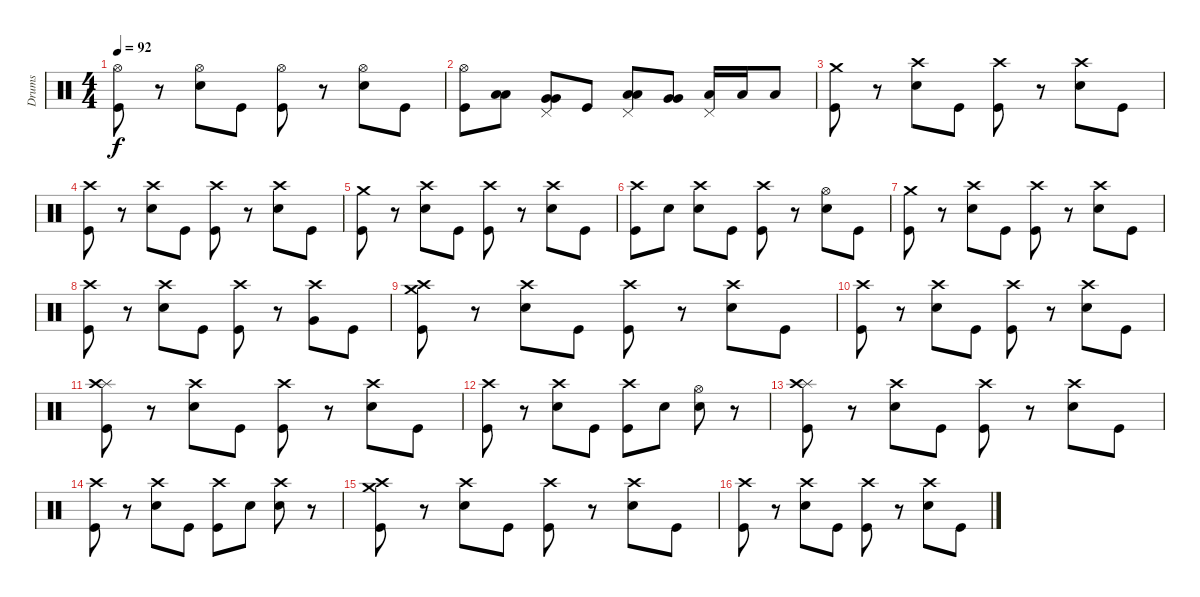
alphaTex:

\track ("Drums" "Drums") {instrument percussion}
\staff {score}
\articulation defaults
\ts (4 4)
\tempo 92
\clef neutral
\ks c
("Hi-Hat (open)" "Kick (hit)").8{dy f} r.8 ("Hi-Hat (open)" "Snare (hit) 2").8 "Kick (hit)".8 ("Hi-Hat (open)" "Kick (hit)").8 r.8 ("Hi-Hat (open)" "Snare (hit) 2").8 "Kick (hit)".8 |
("Hi-Hat (open)" "Kick (hit)").8 ("Low Tom (hit)" "Low Tom (hit)").8 ("Pedal Hi-Hat (hit)" "Very Low Tom (hit)" "Very Low Tom (hit)").8 "Kick (hit)".8 ("Pedal Hi-Hat (hit)" "Low Tom (hit)" "Low Tom (hit)").8 ("Very Low Tom (hit)" "Very Low Tom (hit)").8 ("Pedal Hi-Hat (hit)" "Low Floor Tom (hit)").16 "Low Floor Tom (hit)".16 "Low Floor Tom (hit)".8 |
("Crash medium (hit)" "Kick (hit)").8 r.8 ("Crash high (hit)" "Snare (hit) 2").8 "Kick (hit)".8 ("Crash high (hit)" "Kick (hit)").8 r.8 ("Crash high (hit)" "Snare (hit) 2").8 "Kick (hit)".8 |
("Crash high (hit)" "Kick (hit)").8 r.8 ("Crash high (hit)" "Snare (hit) 2").8 "Kick (hit)".8 ("Crash high (hit)" "Kick (hit)").8 r.8 ("Crash high (hit)" "Snare (hit) 2").8 "Kick (hit)".8 |
("Crash medium (hit)" "Kick (hit)").8 r.8 ("Crash high (hit)" "Snare (hit) 2").8 "Kick (hit)".8 ("Crash high (hit)" "Kick (hit)").8 r.8 ("Crash high (hit)" "Snare (hit) 2").8 "Kick (hit)".8 |
("Crash high (hit)" "Kick (hit)").8 "Snare (hit) 2".8 ("Crash high (hit)" "Snare (hit) 2").8 "Kick (hit)".8 ("Crash high (hit)" "Kick (hit)").8 r.8 ("Hi-Hat (open)" "Snare (hit) 2").8 "Kick (hit)".8 |
("Crash medium (hit)" "Kick (hit)").8 r.8 ("Crash high (hit)" "Snare (hit) 2").8 "Kick (hit)".8 ("Crash high (hit)" "Kick (hit)").8 r.8 ("Crash high (hit)" "Snare (hit) 2").8 "Kick (hit)".8 |
("Crash high (hit)" "Kick (hit)").8 r.8 ("Crash high (hit)" "Snare (hit) 2").8 "Kick (hit)".8 ("Crash high (hit)" "Kick (hit)").8 r.8 ("Crash high (hit)" "Very Low Tom (hit)").8 "Kick (hit)".8 |
("Crash medium (hit)" "Crash high (hit)" "Kick (hit)").8 r.8 ("Crash high (hit)" "Snare (hit) 2").8 "Kick (hit)".8 ("Crash high (hit)" "Kick (hit)").8 r.8 ("Crash high (hit)" "Snare (hit) 2").8 "Kick (hit)".8 |
("Crash high (hit)" "Kick (hit)").8 r.8 ("Crash high (hit)" "Snare (hit) 2").8 "Kick (hit)".8 ("Crash high (hit)" "Kick (hit)").8 r.8 ("Crash high (hit)" "Snare (hit) 2").8 "Kick (hit)".8 |
("Splash (hit)" "Crash high (hit)" "Kick (hit)").8 r.8 ("Crash high (hit)" "Snare (hit) 2").8 "Kick (hit)".8 ("Crash high (hit)" "Kick (hit)").8 r.8 ("Crash high (hit)" "Snare (hit) 2").8 "Kick (hit)".8 |
("Crash high (hit)" "Kick (hit)").8 r.8 ("Crash high (hit)" "Snare (hit) 2").8 "Kick (hit)".8 ("Crash high (hit)" "Kick (hit)").8 "Snare (hit) 2".8 ("Hi-Hat (open)" "Snare (hit) 2").8 r.8 |
("Splash (hit)" "Crash high (hit)" "Kick (hit)").8 r.8 ("Crash high (hit)" "Snare (hit) 2").8 "Kick (hit)".8 ("Crash high (hit)" "Kick (hit)").8 r.8 ("Crash high (hit)" "Snare (hit) 2").8 "Kick (hit)".8 |
("Crash high (hit)" "Kick (hit)").8 r.8 ("Crash high (hit)" "Snare (hit) 2").8 "Kick (hit)".8 ("Crash high (hit)" "Kick (hit)").8 "Snare (hit) 2".8 ("Crash high (hit)" "Snare (hit) 2").8 r.8 |
("Crash medium (hit)" "Crash high (hit)" "Kick (hit)").8 r.8 ("Crash high (hit)" "Snare (hit) 2").8 "Kick (hit)".8 ("Crash high (hit)" "Kick (hit)").8 r.8 ("Crash high (hit)" "Snare (hit) 2").8 "Kick (hit)".8 |
("Crash high (hit)" "Kick (hit)").8 r.8 ("Crash high (hit)" "Snare (hit) 2").8 "Kick (hit)".8 ("Crash high (hit)" "Kick (hit)").8 r.8 ("Crash high (hit)" "Snare (hit) 2").8 "Kick (hit)".8
